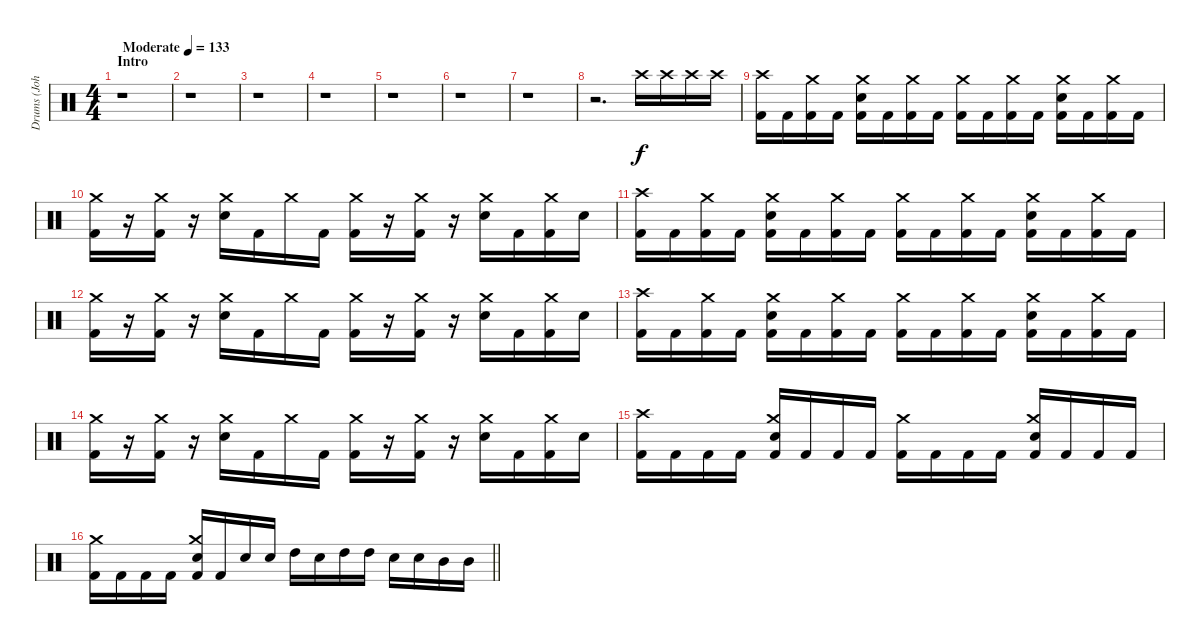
\track ("Drums (John)" "Drums (Joh") {instrument percussion}
\staff {score}
\articulation defaults
\ts (4 4)
\section ("" "Intro")
\tempo (133 "Moderate")
\clef neutral
\ks c
r.1{dy f} |
r.1 |
r.1 |
r.1 |
r.1 |
r.1 |
r.1 |
r.2{d} "Crash high (hit)".16{volume 5} "Crash high (hit)".16{volume 7} "Crash high (hit)".16{volume 8} "Crash high (hit)".16{volume 11} |
("Crash high (hit)" "Kick (hit) 2").16 "Kick (hit) 2".16 ("Crash medium (hit)" "Kick (hit) 2").16 "Kick (hit) 2".16 ("Crash medium (hit)" "Electric Snare (hit)" "Kick (hit) 2").16 "Kick (hit) 2".16 ("Crash medium (hit)" "Kick (hit) 2").16 "Kick (hit) 2".16 ("Crash medium (hit)" "Kick (hit) 2").16 "Kick (hit) 2".16 ("Crash medium (hit)" "Kick (hit) 2").16 "Kick (hit) 2".16 ("Crash medium (hit)" "Electric Snare (hit)" "Kick (hit) 2").16 "Kick (hit) 2".16 ("Crash medium (hit)" "Kick (hit) 2").16 "Kick (hit) 2".16 |
("Crash medium (hit)" "Kick (hit) 2").16 r.16 ("Crash medium (hit)" "Kick (hit) 2").16 r.16 ("Crash medium (hit)" "Electric Snare (hit)").16 "Kick (hit) 2".16 "Crash medium (hit)".16 "Kick (hit) 2".16 ("Crash medium (hit)" "Kick (hit) 2").16 r.16 ("Crash medium (hit)" "Kick (hit) 2").16 r.16 ("Crash medium (hit)" "Electric Snare (hit)").16 "Kick (hit) 2".16 ("Crash medium (hit)" "Kick (hit) 2").16 "Electric Snare (hit)".16 |
("Crash high (hit)" "Kick (hit) 2").16 "Kick (hit) 2".16 ("Crash medium (hit)" "Kick (hit) 2").16 "Kick (hit) 2".16 ("Crash medium (hit)" "Electric Snare (hit)" "Kick (hit) 2").16 "Kick (hit) 2".16 ("Crash medium (hit)" "Kick (hit) 2").16 "Kick (hit) 2".16 ("Crash medium (hit)" "Kick (hit) 2").16 "Kick (hit) 2".16 ("Crash medium (hit)" "Kick (hit) 2").16 "Kick (hit) 2".16 ("Crash medium (hit)" "Electric Snare (hit)" "Kick (hit) 2").16 "Kick (hit) 2".16 ("Crash medium (hit)" "Kick (hit) 2").16 "Kick (hit) 2".16 |
("Crash medium (hit)" "Kick (hit) 2").16 r.16 ("Crash medium (hit)" "Kick (hit) 2").16 r.16 ("Crash medium (hit)" "Electric Snare (hit)").16 "Kick (hit) 2".16 "Crash medium (hit)".16 "Kick (hit) 2".16 ("Crash medium (hit)" "Kick (hit) 2").16 r.16 ("Crash medium (hit)" "Kick (hit) 2").16 r.16 ("Crash medium (hit)" "Electric Snare (hit)").16 "Kick (hit) 2".16 ("Crash medium (hit)" "Kick (hit) 2").16 "Electric Snare (hit)".16 |
("Crash high (hit)" "Kick (hit) 2").16 "Kick (hit) 2".16 ("Crash medium (hit)" "Kick (hit) 2").16 "Kick (hit) 2".16 ("Crash medium (hit)" "Electric Snare (hit)" "Kick (hit) 2").16 "Kick (hit) 2".16 ("Crash medium (hit)" "Kick (hit) 2").16 "Kick (hit) 2".16 ("Crash medium (hit)" "Kick (hit) 2").16 "Kick (hit) 2".16 ("Crash medium (hit)" "Kick (hit) 2").16 "Kick (hit) 2".16 ("Crash medium (hit)" "Electric Snare (hit)" "Kick (hit) 2").16 "Kick (hit) 2".16 ("Crash medium (hit)" "Kick (hit) 2").16 "Kick (hit) 2".16 |
("Crash medium (hit)" "Kick (hit) 2").16 r.16 ("Crash medium (hit)" "Kick (hit) 2").16 r.16 ("Crash medium (hit)" "Electric Snare (hit)").16 "Kick (hit) 2".16 "Crash medium (hit)".16 "Kick (hit) 2".16 ("Crash medium (hit)" "Kick (hit) 2").16 r.16 ("Crash medium (hit)" "Kick (hit) 2").16 r.16 ("Crash medium (hit)" "Electric Snare (hit)").16 "Kick (hit) 2".16 ("Crash medium (hit)" "Kick (hit) 2").16 "Electric Snare (hit)".16 |
("Crash high (hit)" "Kick (hit) 2").16 "Kick (hit) 2".16 "Kick (hit) 2".16 "Kick (hit) 2".16 ("Crash medium (hit)" "Electric Snare (hit)" "Kick (hit) 2").16 "Kick (hit) 2".16 "Kick (hit) 2".16 "Kick (hit) 2".16 ("Crash medium (hit)" "Kick (hit) 2").16 "Kick (hit) 2".16 "Kick (hit) 2".16 "Kick (hit) 2".16 ("Crash medium (hit)" "Electric Snare (hit)" "Kick (hit) 2").16 "Kick (hit) 2".16 "Kick (hit) 2".16 "Kick (hit) 2".16 |
\barLineRight lightlight
("Crash medium (hit)" "Kick (hit) 2").16 "Kick (hit) 2".16 "Kick (hit) 2".16 "Kick (hit) 2".16 ("Crash medium (hit)" "Electric Snare (hit)" "Kick (hit) 2").16 "Kick (hit) 2".16 "Electric Snare (hit)".16 "Electric Snare (hit)".16 "High Tom (hit)".16 "Electric Snare (hit)".16 "High Tom (hit)".16 "High Tom (hit)".16 "Electric Snare (hit)".16 "Electric Snare (hit)".16 "Mid Tom (hit)".16 "Mid Tom (hit)".16
